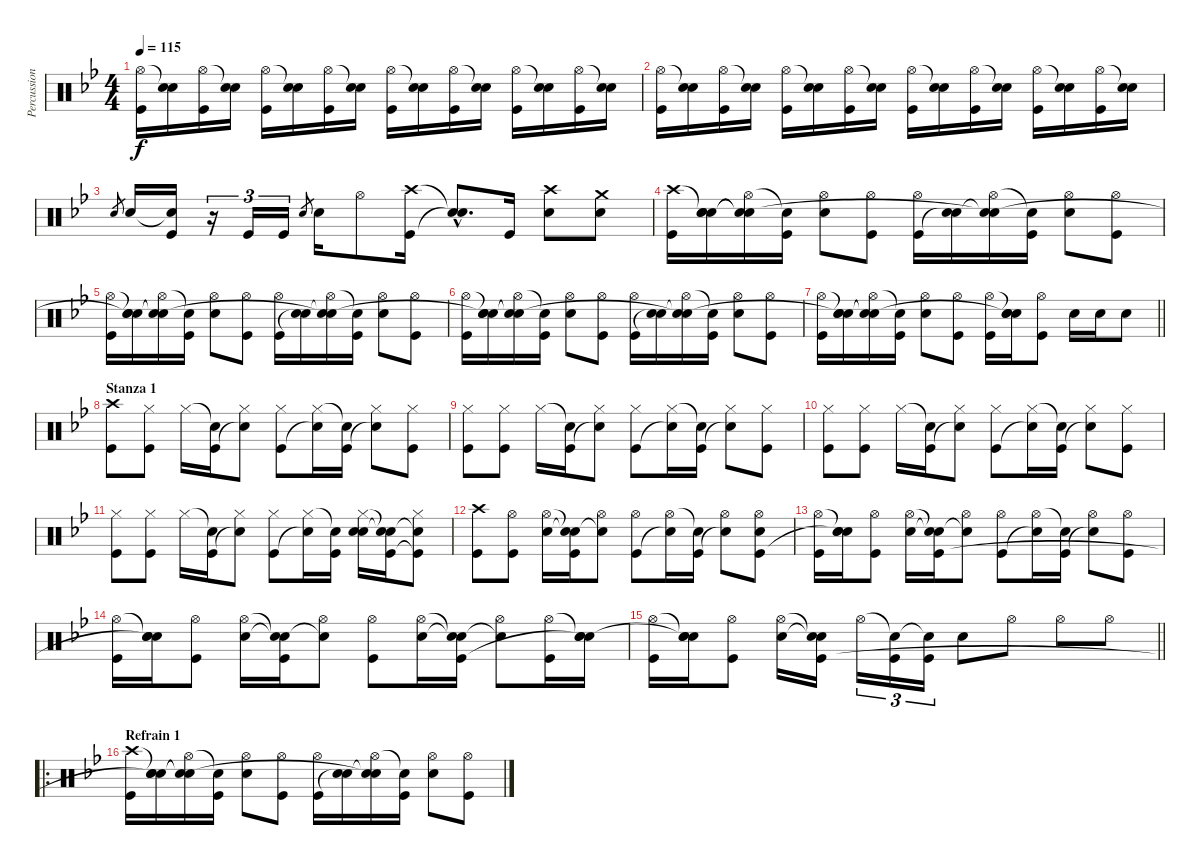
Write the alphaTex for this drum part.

\track ("Percussion" "Percussion") {instrument percussion}
\staff {score}
\articulation defaults
\ts (4 4)
\tempo 115
\clef neutral
\ks bb
("Hi-Hat (open)" "Kick (hit)").16{dy f} ("Snare (hit)"{t} "Electric Snare (hit)").16 ("Hi-Hat (open)" "Kick (hit)").16 ("Snare (hit)"{t} "Electric Snare (hit)").16 ("Hi-Hat (open)" "Kick (hit)").16 ("Snare (hit)"{t} "Electric Snare (hit)").16 ("Hi-Hat (open)" "Kick (hit)").16 ("Snare (hit)"{t} "Electric Snare (hit)").16 ("Hi-Hat (open)" "Kick (hit)").16 ("Snare (hit)"{t} "Electric Snare (hit)").16 ("Hi-Hat (open)" "Kick (hit)").16 ("Snare (hit)"{t} "Electric Snare (hit)").16 ("Hi-Hat (open)" "Kick (hit)").16 ("Snare (hit)"{t} "Electric Snare (hit)").16 ("Hi-Hat (open)" "Kick (hit)").16 ("Snare (hit)"{t} "Electric Snare (hit)").16 |
("Hi-Hat (open)" "Kick (hit)").16 ("Snare (hit)"{t} "Electric Snare (hit)").16 ("Hi-Hat (open)" "Kick (hit)").16 ("Snare (hit)"{t} "Electric Snare (hit)").16 ("Hi-Hat (open)" "Kick (hit)").16 ("Snare (hit)"{t} "Electric Snare (hit)").16 ("Hi-Hat (open)" "Kick (hit)").16 ("Snare (hit)"{t} "Electric Snare (hit)").16 ("Hi-Hat (open)" "Kick (hit)").16 ("Snare (hit)"{t} "Electric Snare (hit)").16 ("Hi-Hat (open)" "Kick (hit)").16 ("Snare (hit)"{t} "Electric Snare (hit)").16 ("Hi-Hat (open)" "Kick (hit)").16 ("Snare (hit)"{t} "Electric Snare (hit)").16 ("Hi-Hat (open)" "Kick (hit)").16 ("Snare (hit)"{t} "Electric Snare (hit)").16 |
"Snare (hit) 2".8{gr} "Electric Snare (hit)".16 ("Snare (hit)"{t} "Kick (hit)").16 r.16{tu (3 2)} "Kick (hit)".16{tu (3 2)} "Kick (hit)".16{tu (3 2)} "Snare (hit) 2".8{gr} "Electric Snare (hit)".16 "Hi-Hat (open)".8 ("Crash high (hit)" "Kick (hit)").16 ("Snare (hit)"{hac t} "Snare (hit)"{hac t}).8{d} "Kick (hit)".16 ("Crash high (hit)" "Electric Snare (hit)").8 ("Crash medium (hit)" "Electric Snare (hit)").8 |
("Crash high (hit)" "Kick (hit)").16 ("Snare (hit)"{t} "Electric Snare (hit)" "Snare (hit)").16 ("Hi-Hat (open)" "Snare (hit)"{t} "Snare (hit)"{t}).16 ("Snare (hit)"{t} "Kick (hit)").16 ("Hi-Hat (open)" "Electric Snare (hit)").8 ("Hi-Hat (open)" "Kick (hit)").8 ("Hi-Hat (open)" "Kick (hit)").16 ("Electric Snare (hit)" "Snare (hit)"{t}).16 ("Hi-Hat (open)" "Snare (hit)"{t} "Snare (hit)"{t}).16 ("Snare (hit)"{t} "Kick (hit)").16 ("Hi-Hat (open)" "Electric Snare (hit)").8 ("Hi-Hat (open)" "Kick (hit)").8 |
("Hi-Hat (open)" "Kick (hit)").16 ("Snare (hit)"{t} "Electric Snare (hit)" "Snare (hit)"{t}).16 ("Hi-Hat (open)" "Snare (hit)"{t} "Snare (hit)"{t}).16 ("Snare (hit)"{t} "Kick (hit)").16 ("Hi-Hat (open)" "Electric Snare (hit)").8 ("Hi-Hat (open)" "Kick (hit)").8 ("Hi-Hat (open)" "Kick (hit)").16 ("Electric Snare (hit)" "Snare (hit)"{t}).16 ("Hi-Hat (open)" "Snare (hit)"{t} "Snare (hit)"{t}).16 ("Snare (hit)"{t} "Kick (hit)").16 ("Hi-Hat (open)" "Electric Snare (hit)").8 ("Hi-Hat (open)" "Kick (hit)").8 |
("Hi-Hat (open)" "Kick (hit)").16 ("Snare (hit)"{t} "Electric Snare (hit)" "Snare (hit)"{t}).16 ("Hi-Hat (open)" "Snare (hit)"{t} "Snare (hit)"{t}).16 ("Snare (hit)"{t} "Kick (hit)").16 ("Hi-Hat (open)" "Electric Snare (hit)").8 ("Hi-Hat (open)" "Kick (hit)").8 ("Hi-Hat (open)" "Kick (hit)").16 ("Electric Snare (hit)" "Snare (hit)"{t}).16 ("Hi-Hat (open)" "Snare (hit)"{t} "Snare (hit)"{t}).16 ("Snare (hit)"{t} "Kick (hit)").16 ("Hi-Hat (open)" "Electric Snare (hit)").8 ("Hi-Hat (open)" "Kick (hit)").8 |
\barLineRight lightlight
("Hi-Hat (open)" "Kick (hit)").16 ("Snare (hit)"{t} "Electric Snare (hit)" "Snare (hit)"{t}).16 ("Hi-Hat (open)" "Snare (hit)"{t} "Snare (hit)"{t}).16 ("Snare (hit)"{t} "Kick (hit)").16 ("Hi-Hat (open)" "Electric Snare (hit)").8 ("Hi-Hat (open)" "Kick (hit)").8 ("Hi-Hat (open)" "Kick (hit)").16 ("Snare (hit)"{t} "Electric Snare (hit)" "Snare (hit)"{t}).16 ("Hi-Hat (open)" "Kick (hit)").8 "Electric Snare (hit)".16 "Electric Snare (hit)".16 "Electric Snare (hit)".8 |
\section ("" "Stanza 1")
("Crash high (hit)" "Kick (hit)").8 ("Hi-Hat (closed)" "Kick (hit)").8 "Hi-Hat (closed)".16 ("Snare (hit)"{t} "Kick (hit)").16 ("Hi-Hat (closed)" "Snare (hit)"{t}).8 ("Hi-Hat (closed)" "Kick (hit)").8 ("Hi-Hat (closed)" "Snare (hit)"{t}).16 ("Snare (hit)"{t} "Kick (hit)").16 ("Hi-Hat (closed)" "Snare (hit)"{t}).8 ("Hi-Hat (closed)" "Kick (hit)").8 |
("Hi-Hat (closed)" "Kick (hit)").8 ("Hi-Hat (closed)" "Kick (hit)").8 "Hi-Hat (closed)".16 ("Snare (hit)"{t} "Kick (hit)").16 ("Hi-Hat (closed)" "Snare (hit)"{t}).8 ("Hi-Hat (closed)" "Kick (hit)").8 ("Hi-Hat (closed)" "Snare (hit)"{t}).16 ("Snare (hit)"{t} "Kick (hit)").16 ("Hi-Hat (closed)" "Snare (hit)"{t}).8 ("Hi-Hat (closed)" "Kick (hit)").8 |
("Hi-Hat (closed)" "Kick (hit)").8 ("Hi-Hat (closed)" "Kick (hit)").8 "Hi-Hat (closed)".16 ("Snare (hit)"{t} "Kick (hit)").16 ("Hi-Hat (closed)" "Snare (hit)"{t}).8 ("Hi-Hat (closed)" "Kick (hit)").8 ("Hi-Hat (closed)" "Snare (hit)"{t}).16 ("Snare (hit)"{t} "Kick (hit)").16 ("Hi-Hat (closed)" "Snare (hit)"{t}).8 ("Hi-Hat (closed)" "Kick (hit)").8 |
("Hi-Hat (closed)" "Kick (hit)").8 ("Hi-Hat (closed)" "Kick (hit)").8 "Hi-Hat (closed)".16 ("Snare (hit)"{t} "Kick (hit)").16 ("Hi-Hat (closed)" "Snare (hit)"{t}).8 ("Hi-Hat (closed)" "Kick (hit)").8 ("Hi-Hat (closed)" "Snare (hit)"{t}).16 ("Snare (hit)"{t} "Kick (hit)").16 ("Hi-Hat (closed)" "Electric Snare (hit)" "Snare (hit)").16 ("Snare (hit)"{t} "Snare (hit)"{t} "Kick (hit)").16 ("Hi-Hat (closed)" "Electric Snare (hit)"{t} "Kick (hit)"{t}).8 |
("Crash high (hit)" "Kick (hit)").8 ("Hi-Hat (open)" "Kick (hit)").8 ("Hi-Hat (open)" "Electric Snare (hit)").16 ("Snare (hit)"{t} "Snare (hit)"{t} "Kick (hit)").16 ("Hi-Hat (open)" "Snare (hit)"{t}).8 ("Hi-Hat (open)" "Kick (hit)").8 ("Hi-Hat (open)" "Snare (hit)"{t}).16 ("Snare (hit)"{t} "Kick (hit)").16 ("Hi-Hat (open)" "Snare (hit)"{t}).8 ("Hi-Hat (open)" "Electric Snare (hit)" "Kick (hit)").8 |
("Hi-Hat (open)" "Kick (hit)").16 ("Snare (hit)"{t} "Electric Snare (hit)" "Snare (hit)"{t}).16 ("Hi-Hat (open)" "Kick (hit)").8 ("Hi-Hat (open)" "Electric Snare (hit)").16 ("Snare (hit)"{t} "Snare (hit)"{t} "Kick (hit)").16 ("Hi-Hat (open)" "Snare (hit)"{t}).8 ("Hi-Hat (open)" "Kick (hit)").8 ("Hi-Hat (open)" "Snare (hit)"{t}).16 ("Snare (hit)"{t} "Kick (hit)").16 ("Hi-Hat (open)" "Snare (hit)"{t}).8 ("Hi-Hat (open)" "Kick (hit)").8 |
("Hi-Hat (open)" "Kick (hit)").16 ("Snare (hit)"{t} "Electric Snare (hit)" "Snare (hit)"{t}).16 ("Hi-Hat (open)" "Kick (hit)").8 ("Hi-Hat (open)" "Electric Snare (hit)").16 ("Snare (hit)"{t} "Snare (hit)"{t} "Kick (hit)").16 ("Hi-Hat (open)" "Snare (hit)"{t}).8 ("Hi-Hat (open)" "Kick (hit)").8 ("Hi-Hat (open)" "Electric Snare (hit)").16 ("Snare (hit)"{t} "Snare (hit)"{t} "Kick (hit)").16 ("Hi-Hat (open)" "Snare (hit)"{t}).8 ("Hi-Hat (open)" "Kick (hit)").16 ("Snare (hit)"{t} "Electric Snare (hit)" "Snare (hit)"{t}).16 |
\barLineRight lightlight
("Hi-Hat (open)" "Kick (hit)").16 ("Snare (hit)"{t} "Electric Snare (hit)" "Snare (hit)"{t}).16 ("Hi-Hat (open)" "Kick (hit)").8 ("Hi-Hat (open)" "Electric Snare (hit)").16 ("Snare (hit)"{t} "Snare (hit)"{t} "Kick (hit)").16 "Hi-Hat (open)".16{tu (3 2)} ("Snare (hit)"{t} "Kick (hit)").16{tu (3 2)} ("Snare (hit)"{t} "Kick (hit)").16{tu (3 2)} "Electric Snare (hit)".8 "Hi-Hat (open)".8 "Hi-Hat (open)".8 "Hi-Hat (open)".8 |
\ro
\section ("" "Refrain 1")
("Crash high (hit)" "Kick (hit)").16 ("Snare (hit)"{t} "Electric Snare (hit)" "Snare (hit)"{t}).16 ("Hi-Hat (open)" "Snare (hit)"{t} "Snare (hit)"{t}).16 ("Snare (hit)"{t} "Kick (hit)").16 ("Hi-Hat (open)" "Electric Snare (hit)").8 ("Hi-Hat (open)" "Kick (hit)").8 ("Hi-Hat (open)" "Kick (hit)").16 ("Electric Snare (hit)" "Snare (hit)"{t}).16 ("Hi-Hat (open)" "Snare (hit)"{t} "Snare (hit)"{t}).16 ("Snare (hit)"{t} "Kick (hit)").16 ("Hi-Hat (open)" "Electric Snare (hit)").8 ("Hi-Hat (open)" "Kick (hit)").8
